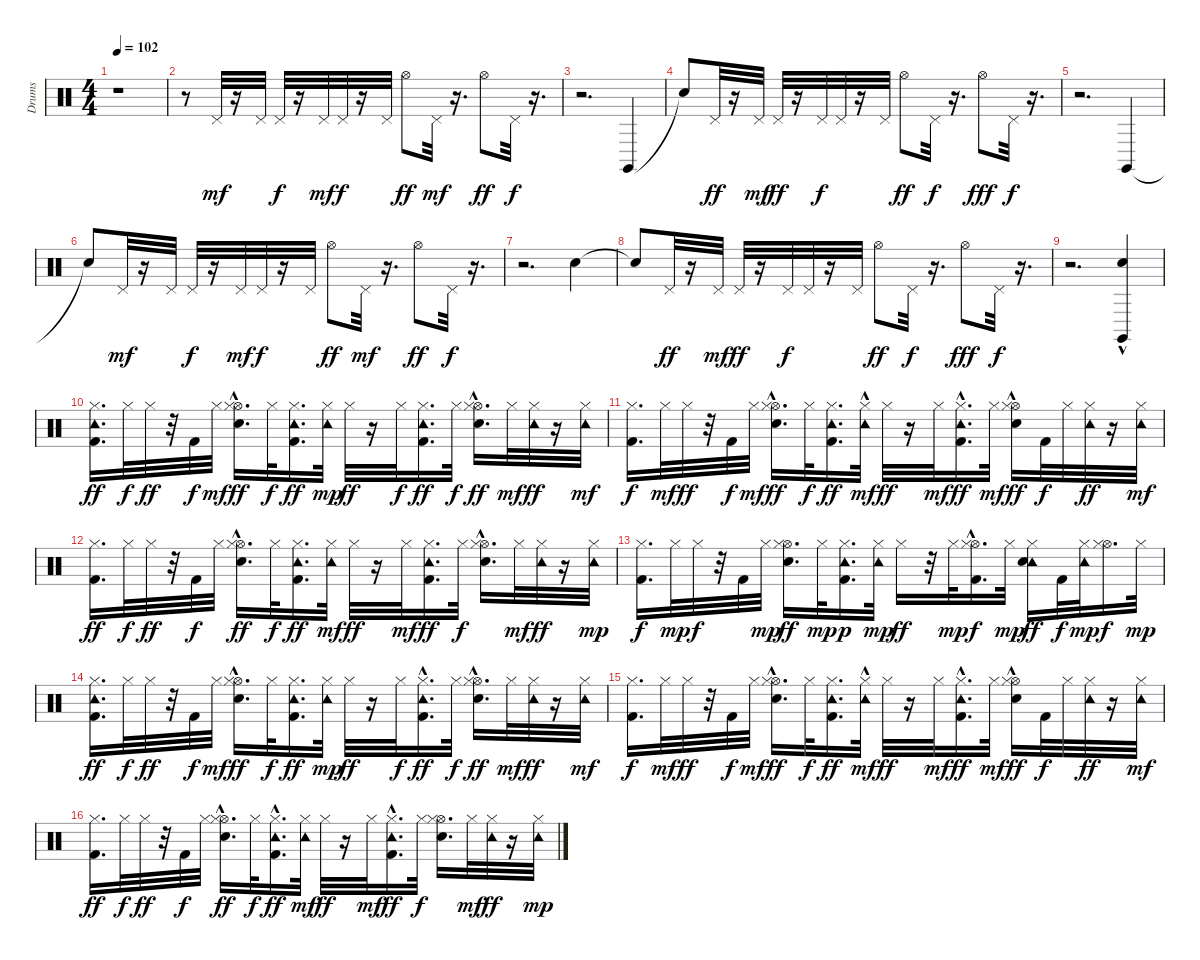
\track ("Drums" "Drums") {instrument percussion}
\staff {score}
\articulation defaults
\ts (4 4)
\tempo 102
\clef neutral
\ks c
r.1{dy mf} |
r.8 "Pedal Hi-Hat (hit)".32 r.16 "Pedal Hi-Hat (hit)".32 "Pedal Hi-Hat (hit)".32{dy f} r.16 "Pedal Hi-Hat (hit)".32{dy mf} "Pedal Hi-Hat (hit)".32{dy f} r.16 "Pedal Hi-Hat (hit)".32 "Hi-Hat (open)".8{dy ff} "Pedal Hi-Hat (hit)".32{dy mf} r.16{d} "Hi-Hat (open)".8{dy ff} "Pedal Hi-Hat (hit)".32{dy f} r.16{d} |
r.2{d} "Claves (hit)".4 |
"Snare (hit)"{t}.8 "Pedal Hi-Hat (hit)".32{dy ff} r.16 "Pedal Hi-Hat (hit)".32{dy mf} "Pedal Hi-Hat (hit)".32{dy ff} r.16 "Pedal Hi-Hat (hit)".32{dy f} "Pedal Hi-Hat (hit)".32 r.16 "Pedal Hi-Hat (hit)".32 "Hi-Hat (open)".8{dy ff} "Pedal Hi-Hat (hit)".32{dy f} r.16{d} "Hi-Hat (open)".8{dy fff} "Pedal Hi-Hat (hit)".32{dy f} r.16{d} |
r.2{d} "Claves (hit)".4 |
"Snare (hit)"{t}.8 "Pedal Hi-Hat (hit)".32{dy mf} r.16 "Pedal Hi-Hat (hit)".32 "Pedal Hi-Hat (hit)".32{dy f} r.16 "Pedal Hi-Hat (hit)".32{dy mf} "Pedal Hi-Hat (hit)".32{dy f} r.16 "Pedal Hi-Hat (hit)".32 "Hi-Hat (open)".8{dy ff} "Pedal Hi-Hat (hit)".32{dy mf} r.16{d} "Hi-Hat (open)".8{dy ff} "Pedal Hi-Hat (hit)".32{dy f} r.16{d} |
r.2{d} "Electric Snare (hit)".4 |
"Snare (hit)"{t}.8 "Pedal Hi-Hat (hit)".32{dy ff} r.16 "Pedal Hi-Hat (hit)".32{dy mf} "Pedal Hi-Hat (hit)".32{dy ff} r.16 "Pedal Hi-Hat (hit)".32{dy f} "Pedal Hi-Hat (hit)".32 r.16 "Pedal Hi-Hat (hit)".32 "Hi-Hat (open)".8{dy ff} "Pedal Hi-Hat (hit)".32{dy f} r.16{d} "Hi-Hat (open)".8{dy fff} "Pedal Hi-Hat (hit)".32{dy f} r.16{d} |
r.2{d} ("Claves (hit)" "Electric Snare (hit)"{hac}).4 |
("Kick (hit) 2" "Tambourine (hit)" "Hi-Hat (closed)").16{d dy ff} "Hi-Hat (closed)".32{dy f} "Hi-Hat (closed)".32{dy ff} r.32 "Kick (hit) 2".32{dy f} "Hi-Hat (closed)".32{dy mf} ("Hi-Hat (open)"{hac} "Hi-Hat (closed)" "Electric Snare (hit)").16{d dy ff} "Hi-Hat (closed)".32{dy f} ("Kick (hit) 2" "Tambourine (hit)" "Hi-Hat (closed)").16{d dy ff} ("Tambourine (hit)" "Hi-Hat (closed)").32{dy mp} "Hi-Hat (closed)".32{dy ff} r.16 "Hi-Hat (closed)".32{dy f} ("Kick (hit) 2" "Tambourine (hit)" "Hi-Hat (closed)").16{d dy ff} "Hi-Hat (closed)".32{dy f} ("Hi-Hat (open)"{hac} "Hi-Hat (closed)" "Electric Snare (hit)"{hac}).16{d dy ff} "Hi-Hat (closed)".32{dy mf} ("Tambourine (hit)" "Hi-Hat (closed)").32{dy ff} r.16 ("Tambourine (hit)" "Hi-Hat (closed)").32{dy mf} |
("Kick (hit) 2" "Hi-Hat (closed)").16{d dy f} "Hi-Hat (closed)".32{dy mf} "Hi-Hat (closed)".32{dy ff} r.32 "Kick (hit) 2".32{dy f} "Hi-Hat (closed)".32{dy mf} ("Hi-Hat (open)"{hac} "Hi-Hat (closed)" "Electric Snare (hit)").16{d dy ff} "Hi-Hat (closed)".32{dy f} ("Kick (hit) 2" "Tambourine (hit)" "Hi-Hat (closed)").16{d dy ff} ("Tambourine (hit)"{hac} "Hi-Hat (closed)").32{dy mf} "Hi-Hat (closed)".32{dy ff} r.16 "Hi-Hat (closed)".32{dy mf} ("Kick (hit) 2"{hac} "Tambourine (hit)" "Hi-Hat (closed)").16{d dy ff} "Hi-Hat (closed)".32{dy mf} ("Hi-Hat (open)"{hac} "Hi-Hat (closed)" "Electric Snare (hit)").16{dy ff} "Kick (hit) 2".32{dy f} "Hi-Hat (closed)".32 ("Tambourine (hit)" "Hi-Hat (closed)").32{dy ff} r.16 ("Tambourine (hit)" "Hi-Hat (closed)").32{dy mf} |
("Kick (hit) 2" "Hi-Hat (closed)").16{d dy ff} "Hi-Hat (closed)".32{dy f} "Hi-Hat (closed)".32{dy ff} r.32 "Kick (hit) 2".32{dy f} "Hi-Hat (closed)".32 ("Hi-Hat (open)"{hac} "Hi-Hat (closed)" "Electric Snare (hit)").16{d dy ff} "Hi-Hat (closed)".32{dy f} ("Kick (hit) 2" "Tambourine (hit)" "Hi-Hat (closed)").16{d dy ff} ("Tambourine (hit)" "Hi-Hat (closed)").32{dy mf} "Hi-Hat (closed)".32{dy ff} r.16 "Hi-Hat (closed)".32{dy mf} ("Kick (hit) 2" "Tambourine (hit)" "Hi-Hat (closed)").16{d dy ff} "Hi-Hat (closed)".32{dy f} ("Hi-Hat (open)" "Hi-Hat (closed)" "Electric Snare (hit)"{hac}).16{d} "Hi-Hat (closed)".32{dy mf} ("Tambourine (hit)" "Hi-Hat (closed)").32{dy ff} r.16 ("Tambourine (hit)" "Hi-Hat (closed)").32{dy mp} |
("Kick (hit) 2" "Hi-Hat (closed)").16{d dy f} "Hi-Hat (closed)".32{dy mp} "Hi-Hat (closed)".32{dy f} r.32 "Kick (hit) 2".32 "Hi-Hat (closed)".32{dy mp} ("Hi-Hat (open)" "Hi-Hat (closed)" "Electric Snare (hit)").16{d dy ff} "Hi-Hat (closed)".32{dy mp} ("Kick (hit) 2" "Tambourine (hit)" "Hi-Hat (closed)").16{d dy p} ("Tambourine (hit)" "Hi-Hat (closed)").32{dy mp} "Hi-Hat (closed)".16{dy ff} r.32 "Hi-Hat (closed)".32{dy mp} ("Kick (hit) 2"{hac} "Hi-Hat (open)"{hac} "Hi-Hat (closed)").16{d dy f} "Hi-Hat (closed)".32{dy mp} ("Tambourine (hit)" "Hi-Hat (closed)" "Electric Snare (hit)").16{dy ff} "Kick (hit) 2".32{dy f} ("Tambourine (hit)" "Hi-Hat (closed)").32{dy mp} ("Hi-Hat (open)" "Hi-Hat (closed)").16{d dy f} "Hi-Hat (closed)".32{dy mp} |
("Kick (hit) 2" "Tambourine (hit)" "Hi-Hat (closed)").16{d dy ff} "Hi-Hat (closed)".32{dy f} "Hi-Hat (closed)".32{dy ff} r.32 "Kick (hit) 2".32{dy f} "Hi-Hat (closed)".32{dy mf} ("Hi-Hat (open)"{hac} "Hi-Hat (closed)" "Electric Snare (hit)").16{d dy ff} "Hi-Hat (closed)".32{dy f} ("Kick (hit) 2" "Tambourine (hit)" "Hi-Hat (closed)").16{d dy ff} ("Tambourine (hit)" "Hi-Hat (closed)").32{dy mp} "Hi-Hat (closed)".32{dy ff} r.16 "Hi-Hat (closed)".32{dy f} ("Kick (hit) 2"{hac} "Tambourine (hit)" "Hi-Hat (closed)").16{d dy ff} "Hi-Hat (closed)".32{dy f} ("Hi-Hat (open)"{hac} "Hi-Hat (closed)" "Electric Snare (hit)").16{d dy ff} "Hi-Hat (closed)".32{dy mf} ("Tambourine (hit)" "Hi-Hat (closed)").32{dy ff} r.16 ("Tambourine (hit)" "Hi-Hat (closed)").32{dy mf} |
("Kick (hit) 2" "Hi-Hat (closed)").16{d dy f} "Hi-Hat (closed)".32{dy mf} "Hi-Hat (closed)".32{dy ff} r.32 "Kick (hit) 2".32{dy f} "Hi-Hat (closed)".32{dy mf} ("Hi-Hat (open)"{hac} "Hi-Hat (closed)" "Electric Snare (hit)").16{d dy ff} "Hi-Hat (closed)".32{dy f} ("Kick (hit) 2" "Tambourine (hit)" "Hi-Hat (closed)").16{d dy ff} ("Tambourine (hit)"{hac} "Hi-Hat (closed)").32{dy mf} "Hi-Hat (closed)".32{dy ff} r.16 "Hi-Hat (closed)".32{dy mf} ("Kick (hit) 2"{hac} "Tambourine (hit)" "Hi-Hat (closed)").16{d dy ff} "Hi-Hat (closed)".32{dy mf} ("Hi-Hat (open)"{hac} "Hi-Hat (closed)" "Electric Snare (hit)"{hac}).16{dy ff} "Kick (hit) 2".32{dy f} "Hi-Hat (closed)".32 ("Tambourine (hit)" "Hi-Hat (closed)").32{dy ff} r.16 ("Tambourine (hit)" "Hi-Hat (closed)").32{dy mf} |
("Kick (hit) 2" "Hi-Hat (closed)").16{d dy ff} "Hi-Hat (closed)".32{dy f} "Hi-Hat (closed)".32{dy ff} r.32 "Kick (hit) 2".32{dy f} "Hi-Hat (closed)".32 ("Hi-Hat (open)"{hac} "Hi-Hat (closed)" "Electric Snare (hit)").16{d dy ff} "Hi-Hat (closed)".32{dy f} ("Kick (hit) 2"{hac} "Tambourine (hit)" "Hi-Hat (closed)").16{d dy ff} ("Tambourine (hit)" "Hi-Hat (closed)").32{dy mf} "Hi-Hat (closed)".32{dy ff} r.16 "Hi-Hat (closed)".32{dy mf} ("Kick (hit) 2"{hac} "Tambourine (hit)" "Hi-Hat (closed)").16{d dy ff} "Hi-Hat (closed)".32{dy f} ("Hi-Hat (open)" "Hi-Hat (closed)" "Electric Snare (hit)").16{d} "Hi-Hat (closed)".32{dy mf} ("Tambourine (hit)" "Hi-Hat (closed)").32{dy ff} r.16 ("Tambourine (hit)" "Hi-Hat (closed)").32{dy mp}
